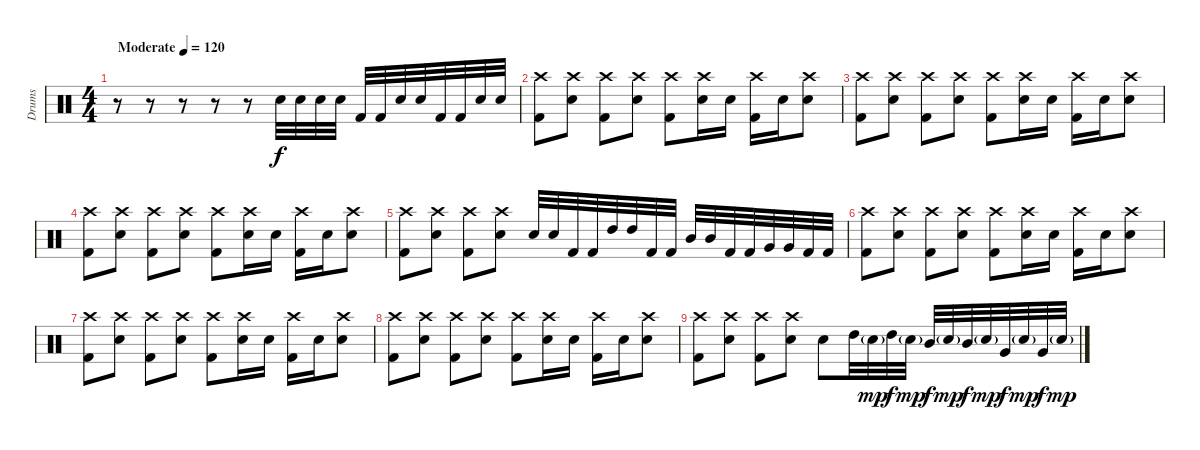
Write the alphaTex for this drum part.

\track ("Drums" "Drums") {instrument percussion}
\staff {score}
\articulation defaults
\ts (4 4)
\tempo (120 "Moderate")
\clef neutral
\ks c
r.8{dy f} r.8 r.8 r.8 r.8 "Electric Snare (hit)".32 "Electric Snare (hit)".32 "Electric Snare (hit)".32 "Electric Snare (hit)".32 "Kick (hit) 2".32 "Kick (hit) 2".32 "Electric Snare (hit)".32 "Electric Snare (hit)".32 "Kick (hit) 2".32 "Kick (hit) 2".32 "Electric Snare (hit)".32 "Electric Snare (hit)".32 |
("Crash high (hit)" "Kick (hit) 2").8 ("Crash high (hit)" "Electric Snare (hit)").8 ("Crash high (hit)" "Kick (hit) 2").8 ("Crash high (hit)" "Electric Snare (hit)").8 ("Crash high (hit)" "Kick (hit) 2").8 ("Crash high (hit)" "Electric Snare (hit)").16 "Electric Snare (hit)".16 ("Crash high (hit)" "Kick (hit) 2").16 "Electric Snare (hit)".16 ("Crash high (hit)" "Electric Snare (hit)").8 |
("Crash high (hit)" "Kick (hit) 2").8 ("Crash high (hit)" "Electric Snare (hit)").8 ("Crash high (hit)" "Kick (hit) 2").8 ("Crash high (hit)" "Electric Snare (hit)").8 ("Crash high (hit)" "Kick (hit) 2").8 ("Crash high (hit)" "Electric Snare (hit)").16 "Electric Snare (hit)".16 ("Crash high (hit)" "Kick (hit) 2").16 "Electric Snare (hit)".16 ("Crash high (hit)" "Electric Snare (hit)").8 |
("Crash high (hit)" "Kick (hit) 2").8 ("Crash high (hit)" "Electric Snare (hit)").8 ("Crash high (hit)" "Kick (hit) 2").8 ("Crash high (hit)" "Electric Snare (hit)").8 ("Crash high (hit)" "Kick (hit) 2").8 ("Crash high (hit)" "Electric Snare (hit)").16 "Electric Snare (hit)".16 ("Crash high (hit)" "Kick (hit) 2").16 "Electric Snare (hit)".16 ("Crash high (hit)" "Electric Snare (hit)").8 |
("Crash high (hit)" "Kick (hit) 2").8 ("Crash high (hit)" "Electric Snare (hit)").8 ("Crash high (hit)" "Kick (hit) 2").8 ("Crash high (hit)" "Electric Snare (hit)").8 "Electric Snare (hit)".32 "Electric Snare (hit)".32 "Kick (hit) 2".32 "Kick (hit) 2".32 "High Tom (hit)".32 "High Tom (hit)".32 "Kick (hit) 2".32 "Kick (hit) 2".32 "Mid Tom (hit)".32 "Mid Tom (hit)".32 "Kick (hit) 2".32 "Kick (hit) 2".32 "Very Low Tom (hit)".32 "Very Low Tom (hit)".32 "Kick (hit) 2".32 "Kick (hit) 2".32 |
("Crash high (hit)" "Kick (hit) 2").8 ("Crash high (hit)" "Electric Snare (hit)").8 ("Crash high (hit)" "Kick (hit) 2").8 ("Crash high (hit)" "Electric Snare (hit)").8 ("Crash high (hit)" "Kick (hit) 2").8 ("Crash high (hit)" "Electric Snare (hit)").16 "Electric Snare (hit)".16 ("Crash high (hit)" "Kick (hit) 2").16 "Electric Snare (hit)".16 ("Crash high (hit)" "Electric Snare (hit)").8 |
("Crash high (hit)" "Kick (hit) 2").8 ("Crash high (hit)" "Electric Snare (hit)").8 ("Crash high (hit)" "Kick (hit) 2").8 ("Crash high (hit)" "Electric Snare (hit)").8 ("Crash high (hit)" "Kick (hit) 2").8 ("Crash high (hit)" "Electric Snare (hit)").16 "Electric Snare (hit)".16 ("Crash high (hit)" "Kick (hit) 2").16 "Electric Snare (hit)".16 ("Crash high (hit)" "Electric Snare (hit)").8 |
("Crash high (hit)" "Kick (hit) 2").8 ("Crash high (hit)" "Electric Snare (hit)").8 ("Crash high (hit)" "Kick (hit) 2").8 ("Crash high (hit)" "Electric Snare (hit)").8 ("Crash high (hit)" "Kick (hit) 2").8 ("Crash high (hit)" "Electric Snare (hit)").16 "Electric Snare (hit)".16 ("Crash high (hit)" "Kick (hit) 2").16 "Electric Snare (hit)".16 ("Crash high (hit)" "Electric Snare (hit)").8 |
("Crash high (hit)" "Kick (hit) 2").8 ("Crash high (hit)" "Electric Snare (hit)").8 ("Crash high (hit)" "Kick (hit) 2").8 ("Crash high (hit)" "Electric Snare (hit)").8 "Electric Snare (hit)".8 "High Tom (hit)".32 "Electric Snare (hit)"{g}.32{dy mp} "High Tom (hit)".32{dy f} "Electric Snare (hit)"{g}.32{dy mp} "Mid Tom (hit)".32{dy f} "Electric Snare (hit)"{g}.32{dy mp} "Mid Tom (hit)".32{dy f} "Electric Snare (hit)"{g}.32{dy mp} "Very Low Tom (hit)".32{dy f} "Electric Snare (hit)"{g}.32{dy mp} "Very Low Tom (hit)".32{dy f} "Electric Snare (hit)"{g}.32{dy mp}
